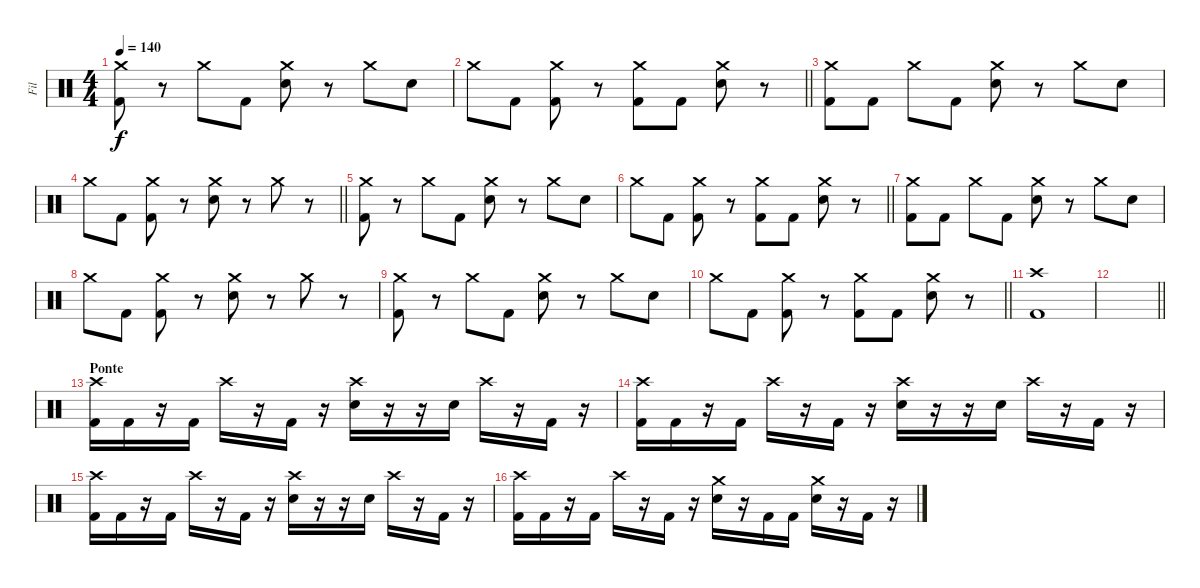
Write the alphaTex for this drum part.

\track ("Fil" "Fil") {instrument percussion}
\staff {score}
\articulation defaults
\ts (4 4)
\tempo 140
\clef neutral
\ks c
("Crash medium (hit)" "Kick (hit) 2").8{dy f} r.8 "Crash medium (hit)".8 "Kick (hit) 2".8 ("Crash medium (hit)" "Electric Snare (hit)").8 r.8 "Crash medium (hit)".8 "Electric Snare (hit)".8 |
\barLineRight lightlight "Crash medium (hit)".8 "Kick (hit) 2".8
("Crash medium (hit)" "Kick (hit) 2").8 r.8 ("Crash medium (hit)" "Kick (hit) 2").8 "Kick (hit) 2".8 ("Crash medium (hit)" "Electric Snare (hit)").8 r.8 |
("Crash medium (hit)" "Kick (hit) 2").8 "Kick (hit) 2".8 "Crash medium (hit)".8 "Kick (hit) 2".8 ("Crash medium (hit)" "Electric Snare (hit)").8 r.8 "Crash medium (hit)".8 "Electric Snare (hit)".8 |
\barLineRight lightlight "Crash medium (hit)".8 "Kick (hit) 2".8
("Crash medium (hit)" "Kick (hit) 2").8 r.8 ("Crash medium (hit)" "Electric Snare (hit)").8 r.8 "Crash medium (hit)".8 r.8 |
("Crash medium (hit)" "Kick (hit) 2").8 r.8 "Crash medium (hit)".8 "Kick (hit) 2".8 ("Crash medium (hit)" "Electric Snare (hit)").8 r.8 "Crash medium (hit)".8 "Electric Snare (hit)".8 |
\barLineRight lightlight "Crash medium (hit)".8 "Kick (hit) 2".8
("Crash medium (hit)" "Kick (hit) 2").8 r.8 ("Crash medium (hit)" "Kick (hit) 2").8 "Kick (hit) 2".8 ("Crash medium (hit)" "Electric Snare (hit)").8 r.8 |
("Crash medium (hit)" "Kick (hit) 2").8 "Kick (hit) 2".8 "Crash medium (hit)".8 "Kick (hit) 2".8 ("Crash medium (hit)" "Electric Snare (hit)").8 r.8 "Crash medium (hit)".8 "Electric Snare (hit)".8 |
"Crash medium (hit)".8 "Kick (hit) 2".8 ("Crash medium (hit)" "Kick (hit) 2").8 r.8 ("Crash medium (hit)" "Electric Snare (hit)").8 r.8 "Crash medium (hit)".8 r.8 |
("Crash medium (hit)" "Kick (hit) 2").8 r.8 "Crash medium (hit)".8 "Kick (hit) 2".8 ("Crash medium (hit)" "Electric Snare (hit)").8 r.8 "Crash medium (hit)".8 "Electric Snare (hit)".8 |
\barLineRight lightlight "Crash medium (hit)".8 "Kick (hit) 2".8
("Crash medium (hit)" "Kick (hit) 2").8 r.8 ("Crash medium (hit)" "Kick (hit) 2").8 "Kick (hit) 2".8 ("Crash medium (hit)" "Electric Snare (hit)").8 r.8 |
\section ("" "")
("Crash high (hit)" "Kick (hit) 2").1 |
\barLineRight lightlight
|
\section ("" "Ponte")
("Crash high (hit)" "Kick (hit) 2").16 "Kick (hit) 2".16 r.16 "Kick (hit) 2".16 "Crash high (hit)".16 r.16 "Kick (hit) 2".16 r.16 ("Crash high (hit)" "Electric Snare (hit)").16 r.16 r.16 "Electric Snare (hit)".16 "Crash high (hit)".16 r.16 "Kick (hit) 2".16 r.16 |
("Crash high (hit)" "Kick (hit) 2").16 "Kick (hit) 2".16 r.16 "Kick (hit) 2".16 "Crash high (hit)".16 r.16 "Kick (hit) 2".16 r.16 ("Crash high (hit)" "Electric Snare (hit)").16 r.16 r.16 "Electric Snare (hit)".16 "Crash high (hit)".16 r.16 "Kick (hit) 2".16 r.16 |
("Crash high (hit)" "Kick (hit) 2").16 "Kick (hit) 2".16 r.16 "Kick (hit) 2".16 "Crash high (hit)".16 r.16 "Kick (hit) 2".16 r.16 ("Crash high (hit)" "Electric Snare (hit)").16 r.16 r.16 "Electric Snare (hit)".16 "Crash high (hit)".16 r.16 "Kick (hit) 2".16 r.16 |
("Crash high (hit)" "Kick (hit) 2").16 "Kick (hit) 2".16 r.16 "Kick (hit) 2".16 "Crash high (hit)".16 r.16 "Kick (hit) 2".16 r.16 ("Crash medium (hit)" "Electric Snare (hit)").16 r.16 "Kick (hit) 2".16 "Kick (hit) 2".16 ("Crash medium (hit)" "Electric Snare (hit)").16 r.16 "Kick (hit) 2".16 r.16
